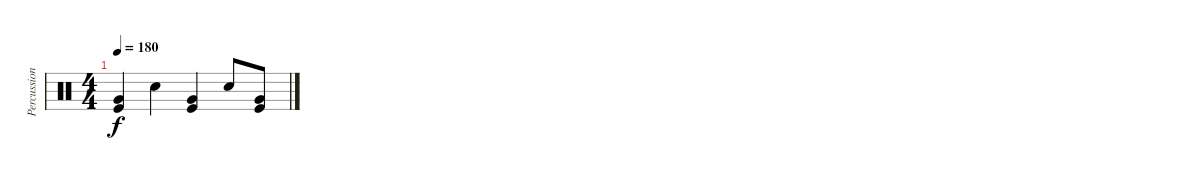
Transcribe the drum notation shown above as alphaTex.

\track ("Percussions" "Percussion") {instrument percussion}
\staff {score}
\articulation defaults
\ts (4 4)
\tempo 180
\clef neutral
\ks c
("Very Low Tom (hit)" "Kick (hit)").4{dy f} "Hand Clap (hit)".4 ("Very Low Tom (hit)" "Kick (hit)").4 "Hand Clap (hit)".8 ("Very Low Tom (hit)" "Kick (hit)").8
